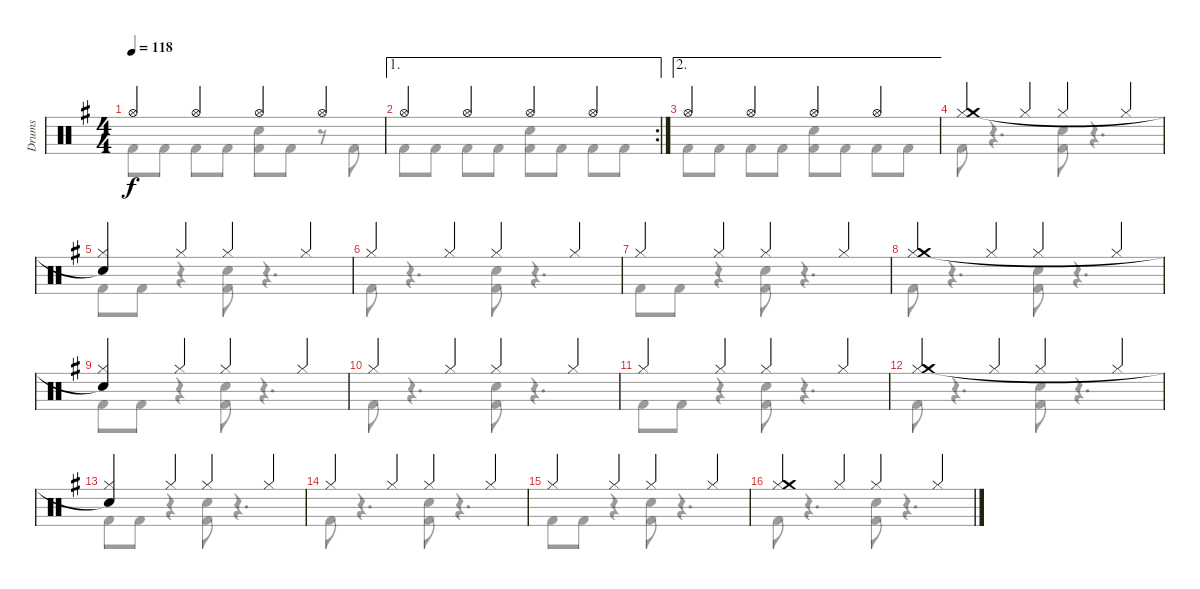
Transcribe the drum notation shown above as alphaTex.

\track ("Drums" "Drums") {instrument percussion}
\staff {score}
\articulation defaults
\voice
\ts (4 4)
\tempo 118
\clef neutral
\ks eminor "Hi-Hat (open)".4{dy f} "Hi-Hat (open)".4 "Hi-Hat (open)".4 "Hi-Hat (open)".4
|
\ae 1
\rc 2 "Hi-Hat (open)".4 "Hi-Hat (open)".4 "Hi-Hat (open)".4 "Hi-Hat (open)".4
|
\ae 2 "Hi-Hat (open)".4 "Hi-Hat (open)".4 "Hi-Hat (open)".4 "Hi-Hat (open)".4
|
("Hi-Hat (closed)" "Crash medium (hit)").4{volume 12} "Hi-Hat (closed)".4 "Hi-Hat (closed)".4 "Hi-Hat (closed)".4 |
("Hi-Hat (closed)" "Snare (hit)"{t}).4 "Hi-Hat (closed)".4 "Hi-Hat (closed)".4 "Hi-Hat (closed)".4 |
"Hi-Hat (closed)".4 "Hi-Hat (closed)".4 "Hi-Hat (closed)".4 "Hi-Hat (closed)".4 |
"Hi-Hat (closed)".4 "Hi-Hat (closed)".4 "Hi-Hat (closed)".4 "Hi-Hat (closed)".4 |
("Hi-Hat (closed)" "Crash medium (hit)").4 "Hi-Hat (closed)".4 "Hi-Hat (closed)".4 "Hi-Hat (closed)".4 |
("Hi-Hat (closed)" "Snare (hit)"{t}).4 "Hi-Hat (closed)".4 "Hi-Hat (closed)".4 "Hi-Hat (closed)".4 |
"Hi-Hat (closed)".4 "Hi-Hat (closed)".4 "Hi-Hat (closed)".4 "Hi-Hat (closed)".4 |
"Hi-Hat (closed)".4 "Hi-Hat (closed)".4 "Hi-Hat (closed)".4 "Hi-Hat (closed)".4 |
("Hi-Hat (closed)" "Crash medium (hit)").4 "Hi-Hat (closed)".4 "Hi-Hat (closed)".4 "Hi-Hat (closed)".4 |
("Hi-Hat (closed)" "Snare (hit)"{t}).4 "Hi-Hat (closed)".4 "Hi-Hat (closed)".4 "Hi-Hat (closed)".4 |
"Hi-Hat (closed)".4 "Hi-Hat (closed)".4 "Hi-Hat (closed)".4 "Hi-Hat (closed)".4 |
"Hi-Hat (closed)".4 "Hi-Hat (closed)".4 "Hi-Hat (closed)".4 "Hi-Hat (closed)".4 |
("Hi-Hat (closed)" "Crash medium (hit)").4 "Hi-Hat (closed)".4 "Hi-Hat (closed)".4 "Hi-Hat (closed)".4
\voice
\clef neutral
\ottava regular
\simile none
\ks eminor "Kick (hit) 2".8{dy f} "Kick (hit) 2".8 "Kick (hit) 2".8 "Kick (hit) 2".8
("Kick (hit) 2" "Electric Snare (hit)").8 "Kick (hit) 2".8 r.8 "Kick (hit) 2".8 |
"Kick (hit) 2".8 "Kick (hit) 2".8 "Kick (hit) 2".8 "Kick (hit) 2".8 ("Kick (hit) 2" "Electric Snare (hit)").8 "Kick (hit) 2".8 "Kick (hit) 2".8 "Kick (hit) 2".8 |
"Kick (hit) 2".8 "Kick (hit) 2".8 "Kick (hit) 2".8 "Kick (hit) 2".8 ("Kick (hit) 2" "Electric Snare (hit)").8 "Kick (hit) 2".8 "Kick (hit) 2".8 "Kick (hit) 2".8 |
"Kick (hit) 2".8 r.4{d} ("Kick (hit) 2" "Electric Snare (hit)").8 r.4{d} |
"Kick (hit) 2".8 "Kick (hit) 2".8 r.4 ("Kick (hit) 2" "Electric Snare (hit)").8 r.4{d} |
"Kick (hit) 2".8 r.4{d} ("Kick (hit) 2" "Electric Snare (hit)").8 r.4{d} |
"Kick (hit) 2".8 "Kick (hit) 2".8 r.4 ("Kick (hit) 2" "Electric Snare (hit)").8 r.4{d} |
"Kick (hit) 2".8 r.4{d} ("Kick (hit) 2" "Electric Snare (hit)").8 r.4{d} |
"Kick (hit) 2".8 "Kick (hit) 2".8 r.4 ("Kick (hit) 2" "Electric Snare (hit)").8 r.4{d} |
"Kick (hit) 2".8 r.4{d} ("Kick (hit) 2" "Electric Snare (hit)").8 r.4{d} |
"Kick (hit) 2".8 "Kick (hit) 2".8 r.4 ("Kick (hit) 2" "Electric Snare (hit)").8 r.4{d} |
"Kick (hit) 2".8 r.4{d} ("Kick (hit) 2" "Electric Snare (hit)").8 r.4{d} |
"Kick (hit) 2".8 "Kick (hit) 2".8 r.4 ("Kick (hit) 2" "Electric Snare (hit)").8 r.4{d} |
"Kick (hit) 2".8 r.4{d} ("Kick (hit) 2" "Electric Snare (hit)").8 r.4{d} |
"Kick (hit) 2".8 "Kick (hit) 2".8 r.4 ("Kick (hit) 2" "Electric Snare (hit)").8 r.4{d} |
"Kick (hit) 2".8 r.4{d} ("Kick (hit) 2" "Electric Snare (hit)").8 r.4{d}
